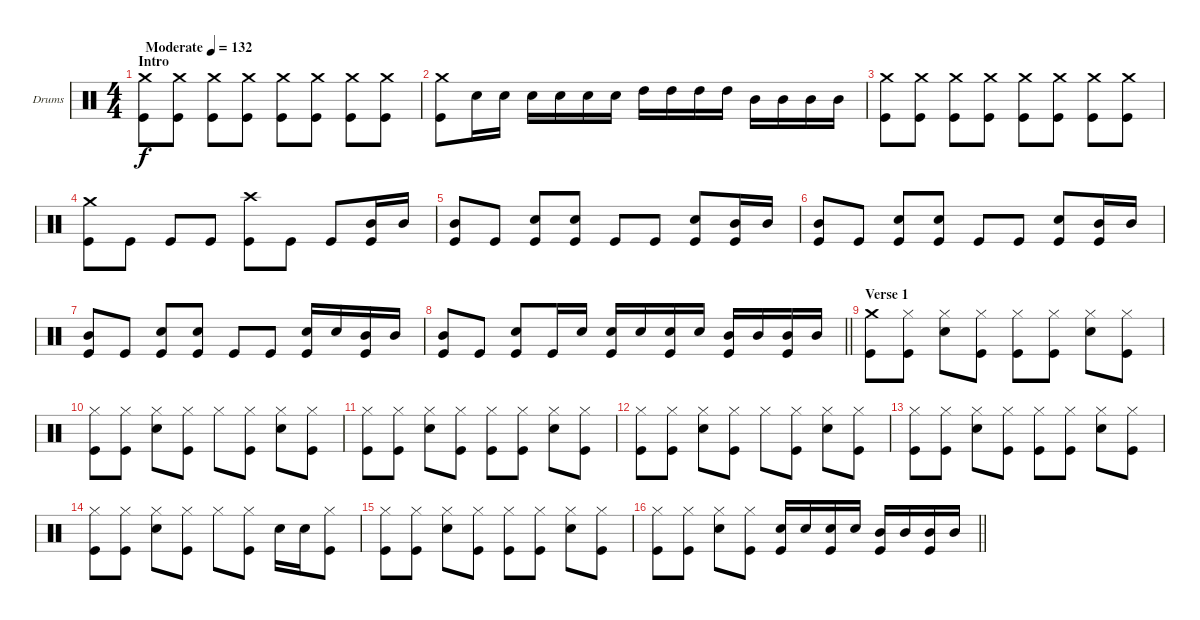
\bracketExtendMode groupsimilarinstruments
\firstSystemTrackNameOrientation horizontal
\otherSystemsTrackNameOrientation horizontal
\track ("Drumkit" "Drums") {instrument percussion}
\staff {score}
\articulation defaults
\ts (4 4)
\beaming (8 2 2 2 2)
\section ("" "Intro")
\tempo (132 "Moderate")
\clef neutral
\ks c
("Crash medium (hit)" "Kick (hit)").8{dy f} ("Crash medium (hit)" "Kick (hit)").8 ("Crash medium (hit)" "Kick (hit)").8 ("Crash medium (hit)" "Kick (hit)").8 ("Crash medium (hit)" "Kick (hit)").8 ("Crash medium (hit)" "Kick (hit)").8 ("Crash medium (hit)" "Kick (hit)").8 ("Crash medium (hit)" "Kick (hit)").8 |
("Crash medium (hit)" "Kick (hit)").8 "Snare (hit) 2".16 "Snare (hit) 2".16 "Snare (hit) 2".16 "Snare (hit) 2".16 "Snare (hit) 2".16 "Snare (hit) 2".16 "High Tom (hit)".16 "High Tom (hit)".16 "High Tom (hit)".16 "High Tom (hit)".16 "Mid Tom (hit)".16 "Mid Tom (hit)".16 "Mid Tom (hit)".16 "Mid Tom (hit)".16 |
("Crash medium (hit)" "Kick (hit)").8 ("Crash medium (hit)" "Kick (hit)").8 ("Crash medium (hit)" "Kick (hit)").8 ("Crash medium (hit)" "Kick (hit)").8 ("Crash medium (hit)" "Kick (hit)").8 ("Crash medium (hit)" "Kick (hit)").8 ("Crash medium (hit)" "Kick (hit)").8 ("Crash medium (hit)" "Kick (hit)").8 |
("Crash medium (hit)" "Kick (hit)").8 "Kick (hit)".8 "Kick (hit)".8 "Kick (hit)".8 ("Crash high (hit)" "Kick (hit)").8 "Kick (hit)".8 "Kick (hit)".8 ("Mid Tom (hit)" "Kick (hit)").16 "Mid Tom (hit)".16 |
("Mid Tom (hit)" "Kick (hit)").8 "Kick (hit)".8 ("Snare (hit) 2" "Kick (hit)").8 ("Snare (hit) 2" "Kick (hit)").8 "Kick (hit)".8 "Kick (hit)".8 ("Snare (hit) 2" "Kick (hit)").8 ("Mid Tom (hit)" "Kick (hit)").16 "Mid Tom (hit)".16 |
("Mid Tom (hit)" "Kick (hit)").8 "Kick (hit)".8 ("Snare (hit) 2" "Kick (hit)").8 ("Snare (hit) 2" "Kick (hit)").8 "Kick (hit)".8 "Kick (hit)".8 ("Snare (hit) 2" "Kick (hit)").8 ("Mid Tom (hit)" "Kick (hit)").16 "Mid Tom (hit)".16 |
("Mid Tom (hit)" "Kick (hit)").8 "Kick (hit)".8 ("Snare (hit) 2" "Kick (hit)").8 ("Snare (hit) 2" "Kick (hit)").8 "Kick (hit)".8 "Kick (hit)".8 ("Snare (hit) 2" "Kick (hit)").16 "Snare (hit) 2".16 ("Mid Tom (hit)" "Kick (hit)").16 "Mid Tom (hit)".16 |
\barLineRight lightlight
("Mid Tom (hit)" "Kick (hit)").8 "Kick (hit)".8 ("Snare (hit) 2" "Kick (hit)").8 "Kick (hit)".16 "Snare (hit) 2".16 ("Snare (hit) 2" "Kick (hit)").16 "Snare (hit) 2".16 ("Snare (hit) 2" "Kick (hit)").16 "Snare (hit) 2".16 ("Mid Tom (hit)" "Kick (hit)").16 "Mid Tom (hit)".16 ("Mid Tom (hit)" "Kick (hit)").16 "Mid Tom (hit)".16 |
\section ("" "Verse 1")
("Crash medium (hit)" "Kick (hit)").8 ("Hi-Hat (closed)" "Kick (hit)").8 ("Hi-Hat (closed)" "Snare (hit) 2").8 ("Hi-Hat (closed)" "Kick (hit)").8 ("Hi-Hat (closed)" "Kick (hit)").8 ("Hi-Hat (closed)" "Kick (hit)").8 ("Hi-Hat (closed)" "Snare (hit) 2").8 ("Hi-Hat (closed)" "Kick (hit)").8 |
("Hi-Hat (closed)" "Kick (hit)").8 ("Hi-Hat (closed)" "Kick (hit)").8 ("Hi-Hat (closed)" "Snare (hit) 2").8 ("Hi-Hat (closed)" "Kick (hit)").8 "Hi-Hat (closed)".8 ("Hi-Hat (closed)" "Kick (hit)").8 ("Hi-Hat (closed)" "Snare (hit) 2").8 ("Hi-Hat (closed)" "Kick (hit)").8 |
("Hi-Hat (closed)" "Kick (hit)").8 ("Hi-Hat (closed)" "Kick (hit)").8 ("Hi-Hat (closed)" "Snare (hit) 2").8 ("Hi-Hat (closed)" "Kick (hit)").8 ("Hi-Hat (closed)" "Kick (hit)").8 ("Hi-Hat (closed)" "Kick (hit)").8 ("Hi-Hat (closed)" "Snare (hit) 2").8 ("Hi-Hat (closed)" "Kick (hit)").8 |
("Hi-Hat (closed)" "Kick (hit)").8 ("Hi-Hat (closed)" "Kick (hit)").8 ("Hi-Hat (closed)" "Snare (hit) 2").8 ("Hi-Hat (closed)" "Kick (hit)").8 "Hi-Hat (closed)".8 ("Hi-Hat (closed)" "Kick (hit)").8 ("Hi-Hat (closed)" "Snare (hit) 2").8 ("Hi-Hat (closed)" "Kick (hit)").8 |
("Hi-Hat (closed)" "Kick (hit)").8 ("Hi-Hat (closed)" "Kick (hit)").8 ("Hi-Hat (closed)" "Snare (hit) 2").8 ("Hi-Hat (closed)" "Kick (hit)").8 ("Hi-Hat (closed)" "Kick (hit)").8 ("Hi-Hat (closed)" "Kick (hit)").8 ("Hi-Hat (closed)" "Snare (hit) 2").8 ("Hi-Hat (closed)" "Kick (hit)").8 |
("Hi-Hat (closed)" "Kick (hit)").8 ("Hi-Hat (closed)" "Kick (hit)").8 ("Hi-Hat (closed)" "Snare (hit) 2").8 ("Hi-Hat (closed)" "Kick (hit)").8 "Hi-Hat (closed)".8 ("Hi-Hat (closed)" "Kick (hit)").8 "Snare (hit) 2".16 "Snare (hit) 2".16 ("Hi-Hat (closed)" "Kick (hit)").8 |
("Hi-Hat (closed)" "Kick (hit)").8 ("Hi-Hat (closed)" "Kick (hit)").8 ("Hi-Hat (closed)" "Snare (hit) 2").8 ("Hi-Hat (closed)" "Kick (hit)").8 ("Hi-Hat (closed)" "Kick (hit)").8 ("Hi-Hat (closed)" "Kick (hit)").8 ("Hi-Hat (closed)" "Snare (hit) 2").8 ("Hi-Hat (closed)" "Kick (hit)").8 |
\barLineRight lightlight
("Hi-Hat (closed)" "Kick (hit)").8 ("Hi-Hat (closed)" "Kick (hit)").8 ("Hi-Hat (closed)" "Snare (hit) 2").8 ("Hi-Hat (closed)" "Kick (hit)").8 ("Snare (hit) 2" "Kick (hit)").16 "Snare (hit) 2".16 ("Snare (hit) 2" "Kick (hit)").16 "Snare (hit) 2".16 ("Mid Tom (hit)" "Kick (hit)").16 "Mid Tom (hit)".16 ("Mid Tom (hit)" "Kick (hit)").16 "Mid Tom (hit)".16
